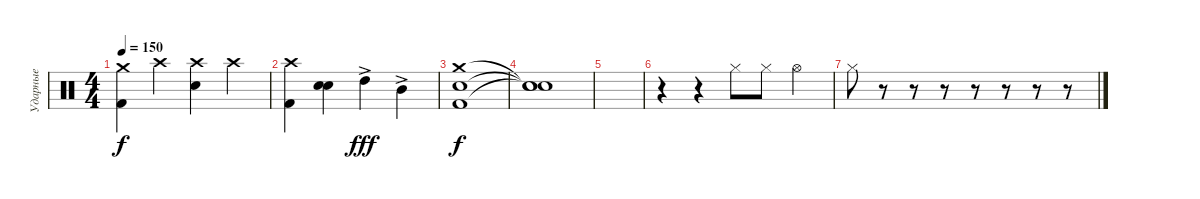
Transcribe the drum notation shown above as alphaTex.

\track ("Ударные" "Ударные") {instrument percussion}
\staff {score}
\articulation defaults
\ts (4 4)
\tempo 150
\clef neutral
\ks c
("Crash medium (hit)" "Kick (hit) 2").4{dy f} "Crash high (hit)".4 ("Crash high (hit)" "Electric Snare (hit)").4 "Crash high (hit)".4 |
("Crash high (hit)" "Kick (hit) 2").4 ("Electric Snare (hit)" "Electric Snare (hit)").4{bu 120} "High Tom (hit)"{ac}.4{dy fff} "Mid Tom (hit)"{ac}.4 |
("Crash medium (hit)" "Electric Snare (hit)" "Kick (hit) 2").1{dy f} |
("Snare (hit)"{t} "Snare (hit)"{t} "Snare (hit)"{t}).1 |
|
r.4 r.4 "Hi-Hat (closed)".8 "Hi-Hat (closed)".8 "Hi-Hat (open)".4 |
"Hi-Hat (closed)".8 r.8 r.8 r.8 r.8 r.8 r.8 r.8
